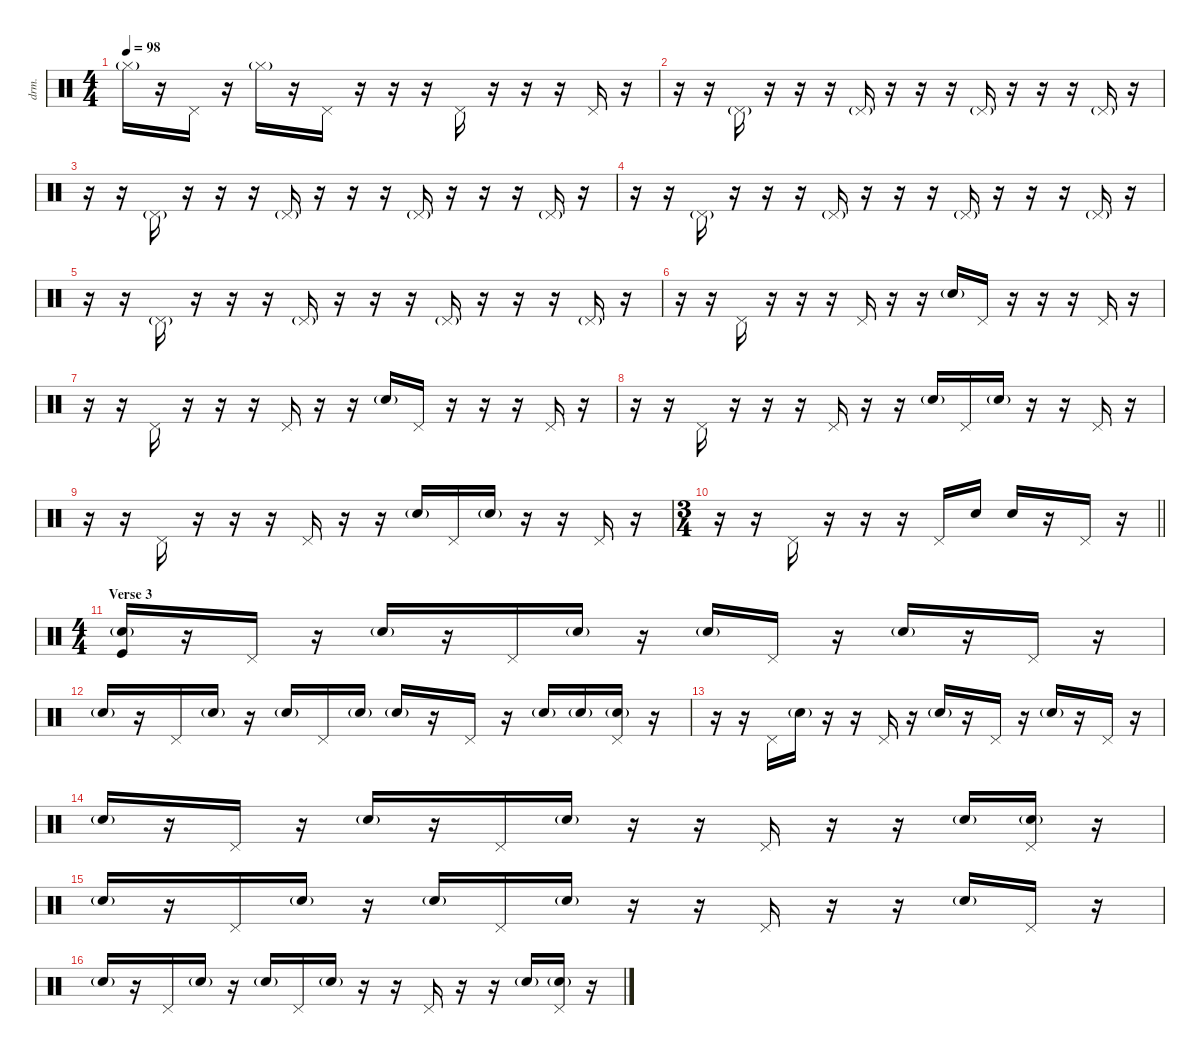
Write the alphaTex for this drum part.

\defaultSystemsLayout 4
\hideDynamics
\bracketExtendMode nobrackets
\otherSystemsTrackNameOrientation horizontal
\track ("Duris Maxwell" "drm.") {instrument percussion}
\staff {score}
\articulation defaults
\ts (4 4)
\tempo 98
\clef neutral
\ks c "Hi-Hat (closed)"{g}.16{dy f beam Down}
r.16{beam Down} "Pedal Hi-Hat (hit)".16{beam Down} r.16{beam Down} "Hi-Hat (closed)"{g}.16{beam Down} r.16{beam Down} "Pedal Hi-Hat (hit)".16{beam Down} r.16{beam Down} r.16{beam Down} r.16{beam Down} "Pedal Hi-Hat (hit)".16{beam Up} r.16{beam Up} r.16{beam Up} r.16{beam Up} "Pedal Hi-Hat (hit)".16{beam Up} r.16{beam Up} |
r.16{beam Down} r.16{beam Down} "Pedal Hi-Hat (hit)"{g}.16{beam Up} r.16{beam Up} r.16{beam Up} r.16{beam Up} "Pedal Hi-Hat (hit)"{g}.16{beam Up} r.16{beam Up} r.16{beam Up} r.16{beam Up} "Pedal Hi-Hat (hit)"{g}.16{beam Up} r.16{beam Up} r.16{beam Up} r.16{beam Up} "Pedal Hi-Hat (hit)"{g}.16{beam Up} r.16{beam Up} |
r.16{beam Down} r.16{beam Down} "Pedal Hi-Hat (hit)"{g}.16{beam Up} r.16{beam Up} r.16{beam Up} r.16{beam Up} "Pedal Hi-Hat (hit)"{g}.16{beam Up} r.16{beam Up} r.16{beam Up} r.16{beam Up} "Pedal Hi-Hat (hit)"{g}.16{beam Up} r.16{beam Up} r.16{beam Up} r.16{beam Up} "Pedal Hi-Hat (hit)"{g}.16{beam Up} r.16{beam Up} |
r.16{beam Down} r.16{beam Down} "Pedal Hi-Hat (hit)"{g}.16{beam Up} r.16{beam Up} r.16{beam Up} r.16{beam Up} "Pedal Hi-Hat (hit)"{g}.16{beam Up} r.16{beam Up} r.16{beam Up} r.16{beam Up} "Pedal Hi-Hat (hit)"{g}.16{beam Up} r.16{beam Up} r.16{beam Up} r.16{beam Up} "Pedal Hi-Hat (hit)"{g}.16{beam Up} r.16{beam Up} |
r.16{beam Down} r.16{beam Down} "Pedal Hi-Hat (hit)"{g}.16{beam Up} r.16{beam Up} r.16{beam Up} r.16{beam Up} "Pedal Hi-Hat (hit)"{g}.16{beam Up} r.16{beam Up} r.16{beam Up} r.16{beam Up} "Pedal Hi-Hat (hit)"{g}.16{beam Up} r.16{beam Up} r.16{beam Up} r.16{beam Up} "Pedal Hi-Hat (hit)"{g}.16{beam Up} r.16{beam Up} |
r.16{beam Down} r.16{beam Down} "Pedal Hi-Hat (hit)".16{beam Up} r.16{beam Up} r.16{beam Up} r.16{beam Up} "Pedal Hi-Hat (hit)".16{beam Up} r.16{beam Up} r.16{beam Up} "Snare (hit) 2"{g}.16{beam Up} "Pedal Hi-Hat (hit)".16{beam Up} r.16{beam Up} r.16{beam Up} r.16{beam Up} "Pedal Hi-Hat (hit)".16{beam Up} r.16{beam Up} |
r.16{beam Down} r.16{beam Down} "Pedal Hi-Hat (hit)".16{beam Up} r.16{beam Up} r.16{beam Up} r.16{beam Up} "Pedal Hi-Hat (hit)".16{beam Up} r.16{beam Up} r.16{beam Up} "Snare (hit) 2"{g}.16{beam Up} "Pedal Hi-Hat (hit)".16{beam Up} r.16{beam Up} r.16{beam Up} r.16{beam Up} "Pedal Hi-Hat (hit)".16{beam Up} r.16{beam Up} |
r.16{beam Down} r.16{beam Down} "Pedal Hi-Hat (hit)".16{beam Up} r.16{beam Up} r.16{beam Up} r.16{beam Up} "Pedal Hi-Hat (hit)".16{beam Up} r.16{beam Up} r.16{beam Up} "Snare (hit) 2"{g}.16{beam Up} "Pedal Hi-Hat (hit)".16{beam Up} "Snare (hit) 2"{g}.16{beam Up} r.16{beam Up} r.16{beam Up} "Pedal Hi-Hat (hit)".16{beam Up} r.16{beam Up} |
r.16{beam Down} r.16{beam Down} "Pedal Hi-Hat (hit)".16{beam Up} r.16{beam Up} r.16{beam Up} r.16{beam Up} "Pedal Hi-Hat (hit)".16{beam Up} r.16{beam Up} r.16{beam Up} "Snare (hit) 2"{g}.16{beam Up} "Pedal Hi-Hat (hit)".16{beam Up} "Snare (hit) 2"{g}.16{beam Up} r.16{beam Up} r.16{beam Up} "Pedal Hi-Hat (hit)".16{beam Up} r.16{beam Up} |
\ts (3 4)
\barLineRight lightlight
r.16{beam Down} r.16{beam Down} "Pedal Hi-Hat (hit)".16{beam Up} r.16{beam Up} r.16{beam Up} r.16{beam Up} "Pedal Hi-Hat (hit)".16{beam Up} "Snare (hit) 2".16{beam Up} "Snare (hit) 2".16{beam Up} r.16{beam Up} "Pedal Hi-Hat (hit)".16{beam Up} r.16{beam Up} |
\ts (4 4)
\section ("" "Verse 3")
("Snare (hit) 2"{g} "Kick (hit)").16{beam Up} r.16{beam Up} "Pedal Hi-Hat (hit)".16{beam Up} r.16{beam Up} "Snare (hit) 2"{g}.16{beam Up} r.16{beam Up} "Pedal Hi-Hat (hit)".16{beam Up} "Snare (hit) 2"{g}.16{beam Up} r.16{beam Up} "Snare (hit) 2"{g}.16{beam Up} "Pedal Hi-Hat (hit)".16{beam Up} r.16{beam Up} "Snare (hit) 2"{g}.16{beam Up} r.16{beam Up} "Pedal Hi-Hat (hit)".16{beam Up} r.16{beam Up} |
"Snare (hit) 2"{g}.16{beam Up} r.16{beam Up} "Pedal Hi-Hat (hit)".16{beam Up} "Snare (hit) 2"{g}.16{beam Up} r.16{beam Up} "Snare (hit) 2"{g}.16{beam Up} "Pedal Hi-Hat (hit)".16{beam Up} "Snare (hit) 2"{g}.16{beam Up} "Snare (hit) 2"{g}.16{beam Up} r.16{beam Up} "Pedal Hi-Hat (hit)".16{beam Up} r.16{beam Up} "Snare (hit) 2"{g}.16{beam Up} "Snare (hit) 2"{g}.16{beam Up} ("Pedal Hi-Hat (hit)" "Snare (hit) 2"{g}).16{beam Up} r.16{beam Up} |
r.16{beam Down} r.16{beam Down} "Pedal Hi-Hat (hit)".16{beam Up} "Snare (hit) 2"{g}.16{beam Up} r.16{beam Up} r.16{beam Up} "Pedal Hi-Hat (hit)".16{beam Up} r.16{beam Up} "Snare (hit) 2"{g}.16{beam Up} r.16{beam Up} "Pedal Hi-Hat (hit)".16{beam Up} r.16{beam Up} "Snare (hit) 2"{g}.16{beam Up} r.16{beam Up} "Pedal Hi-Hat (hit)".16{beam Up} r.16{beam Up} |
"Snare (hit) 2"{g}.16{beam Up} r.16{beam Up} "Pedal Hi-Hat (hit)".16{beam Up} r.16{beam Up} "Snare (hit) 2"{g}.16{beam Up} r.16{beam Up} "Pedal Hi-Hat (hit)".16{beam Up} "Snare (hit) 2"{g}.16{beam Up} r.16{beam Up} r.16{beam Up} "Pedal Hi-Hat (hit)".16{beam Up} r.16{beam Up} r.16{beam Up} "Snare (hit) 2"{g}.16{beam Up} ("Pedal Hi-Hat (hit)" "Snare (hit) 2"{g}).16{beam Up} r.16{beam Up} |
"Snare (hit) 2"{g}.16{beam Up} r.16{beam Up} "Pedal Hi-Hat (hit)".16{beam Up} "Snare (hit) 2"{g}.16{beam Up} r.16{beam Up} "Snare (hit) 2"{g}.16{beam Up} "Pedal Hi-Hat (hit)".16{beam Up} "Snare (hit) 2"{g}.16{beam Up} r.16{beam Up} r.16{beam Up} "Pedal Hi-Hat (hit)".16{beam Up} r.16{beam Up} r.16{beam Up} "Snare (hit) 2"{g}.16{beam Up} "Pedal Hi-Hat (hit)".16{beam Up} r.16{beam Up} |
"Snare (hit) 2"{g}.16{beam Up} r.16{beam Up} "Pedal Hi-Hat (hit)".16{beam Up} "Snare (hit) 2"{g}.16{beam Up} r.16{beam Up} "Snare (hit) 2"{g}.16{beam Up} "Pedal Hi-Hat (hit)".16{beam Up} "Snare (hit) 2"{g}.16{beam Up} r.16{beam Up} r.16{beam Up} "Pedal Hi-Hat (hit)".16{beam Up} r.16{beam Up} r.16{beam Up} "Snare (hit) 2"{g}.16{beam Up} ("Pedal Hi-Hat (hit)" "Snare (hit) 2"{g}).16{beam Up} r.16{beam Up}
